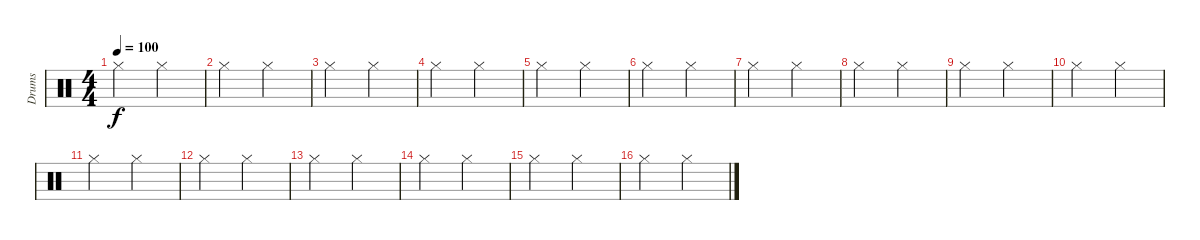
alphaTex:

\track ("Drums" "Drums") {instrument percussion}
\staff {score}
\articulation defaults
\ts (4 4)
\tempo 100
\clef neutral
\ks c "Hi-Hat (closed)".2{dy f} "Hi-Hat (closed)".2
|
"Hi-Hat (closed)".2 "Hi-Hat (closed)".2 |
"Hi-Hat (closed)".2 "Hi-Hat (closed)".2 |
"Hi-Hat (closed)".2 "Hi-Hat (closed)".2 |
"Hi-Hat (closed)".2 "Hi-Hat (closed)".2 |
"Hi-Hat (closed)".2 "Hi-Hat (closed)".2 |
"Hi-Hat (closed)".2 "Hi-Hat (closed)".2 |
"Hi-Hat (closed)".2 "Hi-Hat (closed)".2 |
"Hi-Hat (closed)".2 "Hi-Hat (closed)".2 |
"Hi-Hat (closed)".2 "Hi-Hat (closed)".2 |
"Hi-Hat (closed)".2 "Hi-Hat (closed)".2 |
"Hi-Hat (closed)".2 "Hi-Hat (closed)".2 |
"Hi-Hat (closed)".2 "Hi-Hat (closed)".2 |
"Hi-Hat (closed)".2 "Hi-Hat (closed)".2 |
"Hi-Hat (closed)".2 "Hi-Hat (closed)".2 |
"Hi-Hat (closed)".2 "Hi-Hat (closed)".2
